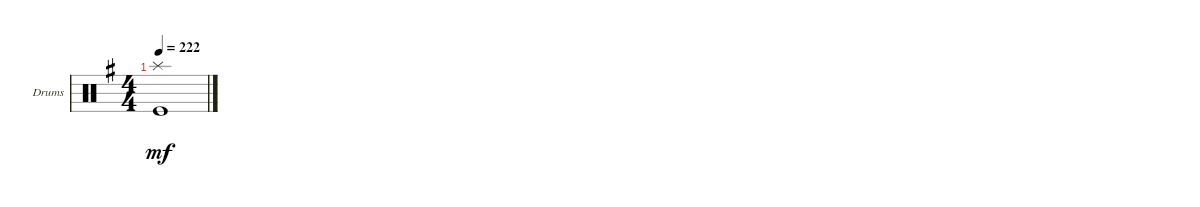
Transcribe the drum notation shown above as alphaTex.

\bracketExtendMode groupsimilarinstruments
\firstSystemTrackNameOrientation horizontal
\otherSystemsTrackNameOrientation horizontal
\track ("Drumkit" "Drums") {instrument percussion}
\staff {score}
\articulation defaults
\ts (4 4)
\tempo 222
\clef neutral
\ks eminor
("Kick (hit)" "Splash (hit)").1{dy mf}
